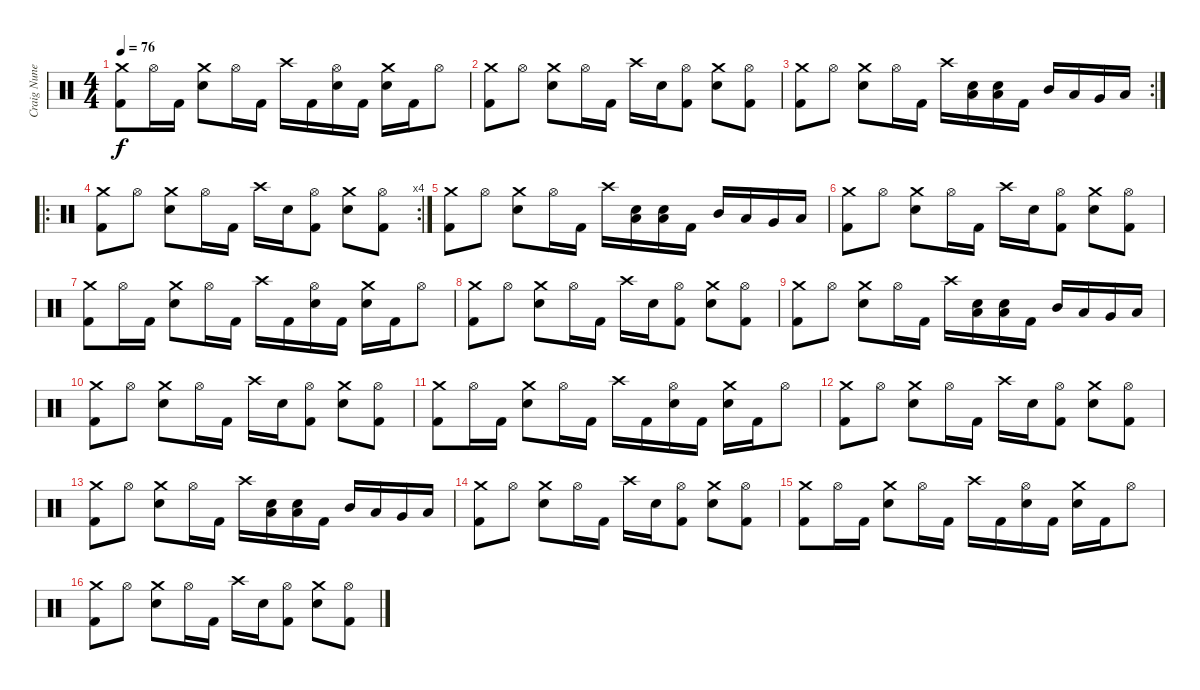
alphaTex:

\track ("Craig Nunenmacher" "Craig Nune") {instrument percussion}
\staff {score}
\articulation defaults
\ts (4 4)
\tempo 76
\clef neutral
\ks c
("Crash medium (hit)" "Kick (hit) 2").8{dy f} "Hi-Hat (open)".16 "Kick (hit) 2".16 ("Crash medium (hit)" "Snare (hit) 2").8 "Hi-Hat (open)".16 "Kick (hit) 2".16 "Crash high (hit)".16 "Kick (hit) 2".16 ("Hi-Hat (open)" "Snare (hit) 2").16 "Kick (hit) 2".16 ("Crash medium (hit)" "Snare (hit) 2").16 "Kick (hit) 2".16 "Hi-Hat (open)".8 |
("Crash medium (hit)" "Kick (hit) 2").8 "Hi-Hat (open)".8 ("Crash medium (hit)" "Snare (hit) 2").8 "Hi-Hat (open)".16 "Kick (hit) 2".16 "Crash high (hit)".16 "Snare (hit) 2".16 ("Hi-Hat (open)" "Kick (hit) 2").8 ("Crash medium (hit)" "Snare (hit) 2").8 ("Hi-Hat (open)" "Kick (hit) 2").8 |
\rc 2
("Crash medium (hit)" "Kick (hit) 2").8 "Hi-Hat (open)".8 ("Crash medium (hit)" "Snare (hit) 2").8 "Hi-Hat (open)".16 "Kick (hit) 2".16 "Crash high (hit)".16 ("Snare (hit) 2" "Low Tom (hit)").16 ("Snare (hit) 2" "Low Tom (hit)").16 "Kick (hit) 2".16 "Mid Tom (hit)".16 "Low Tom (hit)".16 "Very Low Tom (hit)".16 "Low Floor Tom (hit)".16 |
\ro
\rc 4
("Crash medium (hit)" "Kick (hit) 2").8 "Hi-Hat (open)".8 ("Crash medium (hit)" "Snare (hit) 2").8 "Hi-Hat (open)".16 "Kick (hit) 2".16 "Crash high (hit)".16 "Snare (hit) 2".16 ("Hi-Hat (open)" "Kick (hit) 2").8 ("Crash medium (hit)" "Snare (hit) 2").8 ("Hi-Hat (open)" "Kick (hit) 2").8 |
("Crash medium (hit)" "Kick (hit) 2").8 "Hi-Hat (open)".8 ("Crash medium (hit)" "Snare (hit) 2").8 "Hi-Hat (open)".16 "Kick (hit) 2".16 "Crash high (hit)".16 ("Snare (hit) 2" "Low Tom (hit)").16 ("Snare (hit) 2" "Low Tom (hit)").16 "Kick (hit) 2".16 "Mid Tom (hit)".16 "Low Tom (hit)".16 "Very Low Tom (hit)".16 "Low Floor Tom (hit)".16 |
("Crash medium (hit)" "Kick (hit) 2").8 "Hi-Hat (open)".8 ("Crash medium (hit)" "Snare (hit) 2").8 "Hi-Hat (open)".16 "Kick (hit) 2".16 "Crash high (hit)".16 "Snare (hit) 2".16 ("Hi-Hat (open)" "Kick (hit) 2").8 ("Crash medium (hit)" "Snare (hit) 2").8 ("Hi-Hat (open)" "Kick (hit) 2").8 |
("Crash medium (hit)" "Kick (hit) 2").8 "Hi-Hat (open)".16 "Kick (hit) 2".16 ("Crash medium (hit)" "Snare (hit) 2").8 "Hi-Hat (open)".16 "Kick (hit) 2".16 "Crash high (hit)".16 "Kick (hit) 2".16 ("Hi-Hat (open)" "Snare (hit) 2").16 "Kick (hit) 2".16 ("Crash medium (hit)" "Snare (hit) 2").16 "Kick (hit) 2".16 "Hi-Hat (open)".8 |
("Crash medium (hit)" "Kick (hit) 2").8 "Hi-Hat (open)".8 ("Crash medium (hit)" "Snare (hit) 2").8 "Hi-Hat (open)".16 "Kick (hit) 2".16 "Crash high (hit)".16 "Snare (hit) 2".16 ("Hi-Hat (open)" "Kick (hit) 2").8 ("Crash medium (hit)" "Snare (hit) 2").8 ("Hi-Hat (open)" "Kick (hit) 2").8 |
("Crash medium (hit)" "Kick (hit) 2").8 "Hi-Hat (open)".8 ("Crash medium (hit)" "Snare (hit) 2").8 "Hi-Hat (open)".16 "Kick (hit) 2".16 "Crash high (hit)".16 ("Snare (hit) 2" "Low Tom (hit)").16 ("Snare (hit) 2" "Low Tom (hit)").16 "Kick (hit) 2".16 "Mid Tom (hit)".16 "Low Tom (hit)".16 "Very Low Tom (hit)".16 "Low Floor Tom (hit)".16 |
("Crash medium (hit)" "Kick (hit) 2").8 "Hi-Hat (open)".8 ("Crash medium (hit)" "Snare (hit) 2").8 "Hi-Hat (open)".16 "Kick (hit) 2".16 "Crash high (hit)".16 "Snare (hit) 2".16 ("Hi-Hat (open)" "Kick (hit) 2").8 ("Crash medium (hit)" "Snare (hit) 2").8 ("Hi-Hat (open)" "Kick (hit) 2").8 |
("Crash medium (hit)" "Kick (hit) 2").8 "Hi-Hat (open)".16 "Kick (hit) 2".16 ("Crash medium (hit)" "Snare (hit) 2").8 "Hi-Hat (open)".16 "Kick (hit) 2".16 "Crash high (hit)".16 "Kick (hit) 2".16 ("Hi-Hat (open)" "Snare (hit) 2").16 "Kick (hit) 2".16 ("Crash medium (hit)" "Snare (hit) 2").16 "Kick (hit) 2".16 "Hi-Hat (open)".8 |
("Crash medium (hit)" "Kick (hit) 2").8 "Hi-Hat (open)".8 ("Crash medium (hit)" "Snare (hit) 2").8 "Hi-Hat (open)".16 "Kick (hit) 2".16 "Crash high (hit)".16 "Snare (hit) 2".16 ("Hi-Hat (open)" "Kick (hit) 2").8 ("Crash medium (hit)" "Snare (hit) 2").8 ("Hi-Hat (open)" "Kick (hit) 2").8 |
("Crash medium (hit)" "Kick (hit) 2").8 "Hi-Hat (open)".8 ("Crash medium (hit)" "Snare (hit) 2").8 "Hi-Hat (open)".16 "Kick (hit) 2".16 "Crash high (hit)".16 ("Snare (hit) 2" "Low Tom (hit)").16 ("Snare (hit) 2" "Low Tom (hit)").16 "Kick (hit) 2".16 "Mid Tom (hit)".16 "Low Tom (hit)".16 "Very Low Tom (hit)".16 "Low Floor Tom (hit)".16 |
("Crash medium (hit)" "Kick (hit) 2").8 "Hi-Hat (open)".8 ("Crash medium (hit)" "Snare (hit) 2").8 "Hi-Hat (open)".16 "Kick (hit) 2".16 "Crash high (hit)".16 "Snare (hit) 2".16 ("Hi-Hat (open)" "Kick (hit) 2").8 ("Crash medium (hit)" "Snare (hit) 2").8 ("Hi-Hat (open)" "Kick (hit) 2").8 |
("Crash medium (hit)" "Kick (hit) 2").8 "Hi-Hat (open)".16 "Kick (hit) 2".16 ("Crash medium (hit)" "Snare (hit) 2").8 "Hi-Hat (open)".16 "Kick (hit) 2".16 "Crash high (hit)".16 "Kick (hit) 2".16 ("Hi-Hat (open)" "Snare (hit) 2").16 "Kick (hit) 2".16 ("Crash medium (hit)" "Snare (hit) 2").16 "Kick (hit) 2".16 "Hi-Hat (open)".8 |
("Crash medium (hit)" "Kick (hit) 2").8 "Hi-Hat (open)".8 ("Crash medium (hit)" "Snare (hit) 2").8 "Hi-Hat (open)".16 "Kick (hit) 2".16 "Crash high (hit)".16 "Snare (hit) 2".16 ("Hi-Hat (open)" "Kick (hit) 2").8 ("Crash medium (hit)" "Snare (hit) 2").8 ("Hi-Hat (open)" "Kick (hit) 2").8
